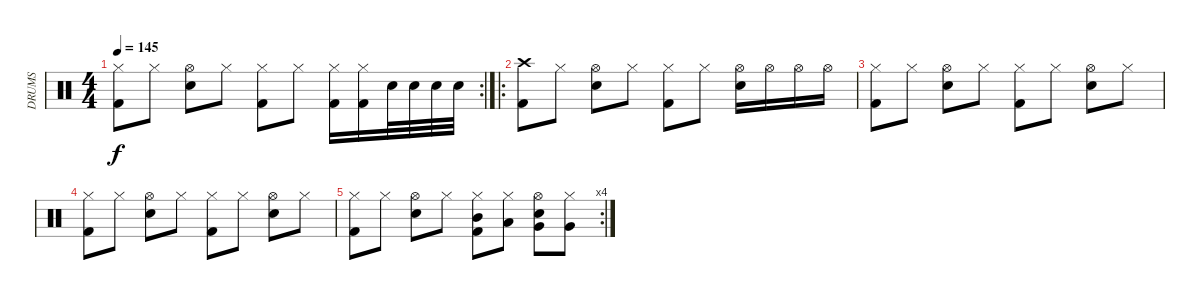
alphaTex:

\track ("DRUMS" "DRUMS") {instrument percussion}
\staff {score}
\articulation defaults
\rc 2
\ts (4 4)
\tempo 145
\clef neutral
\ks c
("Hi-Hat (closed)" "Kick (hit) 2").8{dy f} "Hi-Hat (closed)".8 ("Hi-Hat (open)" "Electric Snare (hit)").8 "Hi-Hat (closed)".8 ("Hi-Hat (closed)" "Kick (hit) 2").8 "Hi-Hat (closed)".8 ("Hi-Hat (closed)" "Kick (hit) 2").16 ("Hi-Hat (closed)" "Kick (hit) 2").16 "Electric Snare (hit)".32 "Electric Snare (hit)".32 "Electric Snare (hit)".32 "Electric Snare (hit)".32 |
\ro
("Crash high (hit)" "Kick (hit) 2").8 "Hi-Hat (closed)".8 ("Hi-Hat (open)" "Electric Snare (hit)").8 "Hi-Hat (closed)".8 ("Hi-Hat (closed)" "Kick (hit) 2").8 "Hi-Hat (closed)".8 ("Hi-Hat (open)" "Electric Snare (hit)").16 "Hi-Hat (open)".16 "Hi-Hat (open)".16 "Hi-Hat (open)".16 |
("Hi-Hat (closed)" "Kick (hit) 2").8 "Hi-Hat (closed)".8 ("Hi-Hat (open)" "Electric Snare (hit)").8 "Hi-Hat (closed)".8 ("Hi-Hat (closed)" "Kick (hit) 2").8 "Hi-Hat (closed)".8 ("Hi-Hat (open)" "Electric Snare (hit)").8 "Hi-Hat (closed)".8 |
("Hi-Hat (closed)" "Kick (hit) 2").8 "Hi-Hat (closed)".8 ("Hi-Hat (open)" "Electric Snare (hit)").8 "Hi-Hat (closed)".8 ("Hi-Hat (closed)" "Kick (hit) 2").8 "Hi-Hat (closed)".8 ("Hi-Hat (open)" "Electric Snare (hit)").8 "Hi-Hat (closed)".8 |
\rc 4
("Hi-Hat (closed)" "Kick (hit) 2").8 "Hi-Hat (closed)".8 ("Hi-Hat (open)" "Electric Snare (hit)").8 "Hi-Hat (closed)".8 ("Hi-Hat (closed)" "Mid Tom (hit)" "Kick (hit) 2").8 ("Hi-Hat (closed)" "Low Tom (hit)").8 ("Hi-Hat (open)" "Very Low Tom (hit)" "Electric Snare (hit)").8 ("Hi-Hat (closed)" "Very Low Tom (hit)").8
